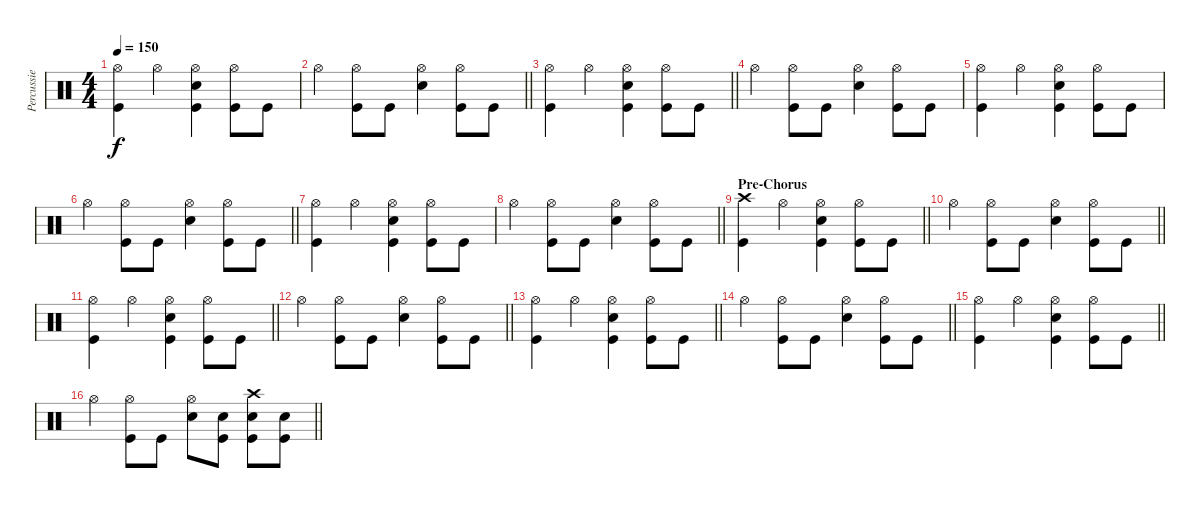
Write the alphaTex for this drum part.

\track ("Percussie" "Percussie") {instrument percussion}
\staff {score}
\articulation defaults
\ts (4 4)
\tempo 150
\clef neutral
\ks c
("Hi-Hat (open)" "Kick (hit)").4{dy f} "Hi-Hat (open)".4 ("Hi-Hat (open)" "Snare (hit) 2" "Kick (hit)").4 ("Hi-Hat (open)" "Kick (hit)").8 "Kick (hit)".8 |
\barLineRight lightlight "Hi-Hat (open)".4
("Hi-Hat (open)" "Kick (hit)").8 "Kick (hit)".8 ("Hi-Hat (open)" "Snare (hit) 2").4 ("Hi-Hat (open)" "Kick (hit)").8 "Kick (hit)".8 |
\section ("" "")
\barLineRight lightlight
("Hi-Hat (open)" "Kick (hit)").4 "Hi-Hat (open)".4 ("Hi-Hat (open)" "Snare (hit) 2" "Kick (hit)").4 ("Hi-Hat (open)" "Kick (hit)").8 "Kick (hit)".8 |
\section ("" "")
"Hi-Hat (open)".4 ("Hi-Hat (open)" "Kick (hit)").8 "Kick (hit)".8 ("Hi-Hat (open)" "Snare (hit) 2").4 ("Hi-Hat (open)" "Kick (hit)").8 "Kick (hit)".8 |
("Hi-Hat (open)" "Kick (hit)").4 "Hi-Hat (open)".4 ("Hi-Hat (open)" "Snare (hit) 2" "Kick (hit)").4 ("Hi-Hat (open)" "Kick (hit)").8 "Kick (hit)".8 |
\barLineRight lightlight "Hi-Hat (open)".4
("Hi-Hat (open)" "Kick (hit)").8 "Kick (hit)".8 ("Hi-Hat (open)" "Snare (hit) 2").4 ("Hi-Hat (open)" "Kick (hit)").8 "Kick (hit)".8 |
("Hi-Hat (open)" "Kick (hit)").4 "Hi-Hat (open)".4 ("Hi-Hat (open)" "Snare (hit) 2" "Kick (hit)").4 ("Hi-Hat (open)" "Kick (hit)").8 "Kick (hit)".8 |
\barLineRight lightlight "Hi-Hat (open)".4
("Hi-Hat (open)" "Kick (hit)").8 "Kick (hit)".8 ("Hi-Hat (open)" "Snare (hit) 2").4 ("Hi-Hat (open)" "Kick (hit)").8 "Kick (hit)".8 |
\section ("" "Pre-Chorus")
\barLineRight lightlight
("Crash high (hit)" "Kick (hit)").4 "Hi-Hat (open)".4 ("Hi-Hat (open)" "Snare (hit) 2" "Kick (hit)").4 ("Hi-Hat (open)" "Kick (hit)").8 "Kick (hit)".8 |
\barLineRight lightlight "Hi-Hat (open)".4
("Hi-Hat (open)" "Kick (hit)").8 "Kick (hit)".8 ("Hi-Hat (open)" "Snare (hit) 2").4 ("Hi-Hat (open)" "Kick (hit)").8 "Kick (hit)".8 |
\barLineRight lightlight
("Hi-Hat (open)" "Kick (hit)").4 "Hi-Hat (open)".4 ("Hi-Hat (open)" "Snare (hit) 2" "Kick (hit)").4 ("Hi-Hat (open)" "Kick (hit)").8 "Kick (hit)".8 |
\barLineRight lightlight "Hi-Hat (open)".4
("Hi-Hat (open)" "Kick (hit)").8 "Kick (hit)".8 ("Hi-Hat (open)" "Snare (hit) 2").4 ("Hi-Hat (open)" "Kick (hit)").8 "Kick (hit)".8 |
\barLineRight lightlight
("Hi-Hat (open)" "Kick (hit)").4 "Hi-Hat (open)".4 ("Hi-Hat (open)" "Snare (hit) 2" "Kick (hit)").4 ("Hi-Hat (open)" "Kick (hit)").8 "Kick (hit)".8 |
\barLineRight lightlight "Hi-Hat (open)".4
("Hi-Hat (open)" "Kick (hit)").8 "Kick (hit)".8 ("Hi-Hat (open)" "Snare (hit) 2").4 ("Hi-Hat (open)" "Kick (hit)").8 "Kick (hit)".8 |
\barLineRight lightlight
("Hi-Hat (open)" "Kick (hit)").4 "Hi-Hat (open)".4 ("Hi-Hat (open)" "Snare (hit) 2" "Kick (hit)").4 ("Hi-Hat (open)" "Kick (hit)").8 "Kick (hit)".8 |
\barLineRight lightlight "Hi-Hat (open)".4
("Hi-Hat (open)" "Kick (hit)").8 "Kick (hit)".8 ("Hi-Hat (open)" "Snare (hit) 2").8 ("Snare (hit) 2" "Kick (hit)").8 ("Crash high (hit)" "Snare (hit) 2" "Kick (hit)").8 ("Snare (hit) 2" "Kick (hit)").8
